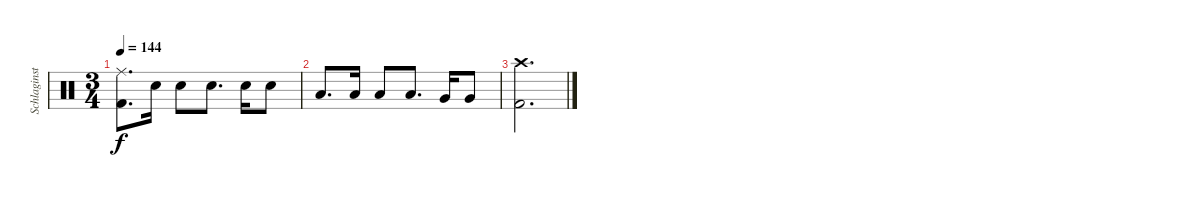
\track ("Schlaginstrumente - Auswahl" "Schlaginst") {instrument percussion}
\staff {score}
\articulation defaults
\ts (3 4)
\tempo 144
\clef neutral
\ks c
("Ride (middle)" "Kick (hit) 2").8{d dy f} "Snare (hit) 2".16 "Snare (hit) 2".8 "Snare (hit) 2".8{d} "Snare (hit) 2".16 "Snare (hit) 2".8 |
"Low Tom (hit)".8{d} "Low Tom (hit)".16 "Low Tom (hit)".8 "Low Tom (hit)".8{d} "Very Low Tom (hit)".16 "Very Low Tom (hit)".8 |
("Crash high (hit)" "Kick (hit) 2").2{d}
